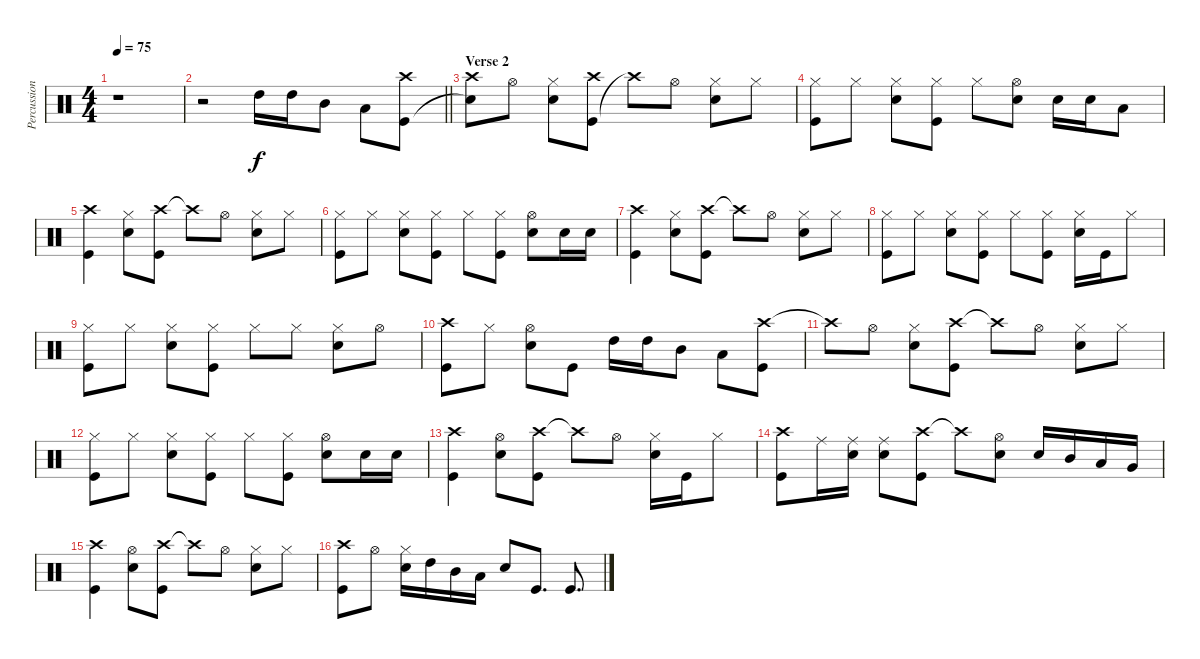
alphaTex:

\track ("Percussion 1" "Percussion") {instrument percussion}
\staff {score}
\articulation defaults
\ts (4 4)
\tempo 75
\clef neutral
\ks c
r.1{dy f} |
\barLineRight lightlight
r.2 "High Tom (hit)".16 "High Tom (hit)".16 "Mid Tom (hit)".8 "Low Tom (hit)".8 ("Kick (hit)" "Crash high (hit)").8 |
\section ("" "Verse 2")
("Snare (hit)"{t} "Crash high (hit)").8 "Hi-Hat (open)".8 ("Snare (hit) 2" "Hi-Hat (closed)").8 ("Kick (hit)" "Crash high (hit)").8 "Crash high (hit)"{t}.8 "Hi-Hat (open)".8 ("Snare (hit) 2" "Hi-Hat (closed)").8 "Hi-Hat (closed)".8 |
("Hi-Hat (closed)" "Kick (hit)").8 "Hi-Hat (closed)".8 ("Hi-Hat (closed)" "Snare (hit) 2").8 ("Kick (hit)" "Hi-Hat (closed)").8 "Hi-Hat (closed)".8 ("Hi-Hat (open)" "Snare (hit) 2").8 "Snare (hit) 2".16 "Snare (hit) 2".16 "Low Tom (hit)".8 |
("Kick (hit)" "Crash high (hit)").4 ("Hi-Hat (closed)" "Snare (hit) 2").8 ("Crash high (hit)" "Kick (hit)").8 "Crash high (hit)"{t}.8 "Hi-Hat (open)".8 ("Hi-Hat (closed)" "Snare (hit) 2").8 "Hi-Hat (closed)".8 |
("Hi-Hat (closed)" "Kick (hit)").8 "Hi-Hat (closed)".8 ("Hi-Hat (closed)" "Snare (hit) 2").8 ("Hi-Hat (closed)" "Kick (hit)").8 "Hi-Hat (closed)".8 ("Hi-Hat (closed)" "Kick (hit)").8 ("Snare (hit) 2" "Hi-Hat (open)").8 "Snare (hit) 2".16 "Snare (hit) 2".16 |
("Kick (hit)" "Crash high (hit)").4 ("Hi-Hat (closed)" "Snare (hit) 2").8 ("Crash high (hit)" "Kick (hit)").8 "Crash high (hit)"{t}.8 "Hi-Hat (open)".8 ("Hi-Hat (closed)" "Snare (hit) 2").8 "Hi-Hat (closed)".8 |
("Hi-Hat (closed)" "Kick (hit)").8 "Hi-Hat (closed)".8 ("Hi-Hat (closed)" "Snare (hit) 2").8 ("Hi-Hat (closed)" "Kick (hit)").8 "Hi-Hat (closed)".8 ("Hi-Hat (closed)" "Kick (hit)").8 ("Hi-Hat (closed)" "Snare (hit) 2").16 "Kick (hit)".16 "Hi-Hat (closed)".8 |
("Hi-Hat (closed)" "Kick (hit)").8 "Hi-Hat (closed)".8 ("Hi-Hat (closed)" "Snare (hit) 2").8 ("Hi-Hat (closed)" "Kick (hit)").8 "Hi-Hat (closed)".8 "Hi-Hat (closed)".8 ("Hi-Hat (closed)" "Snare (hit) 2").8 "Hi-Hat (open)".8 |
("Crash high (hit)" "Kick (hit)").8 "Hi-Hat (closed)".8 ("Hi-Hat (open)" "Snare (hit) 2").8 "Kick (hit)".8 "High Tom (hit)".16 "High Tom (hit)".16 "Mid Tom (hit)".8 "Low Tom (hit)".8 ("Crash high (hit)" "Kick (hit)").8 |
"Crash high (hit)"{t}.8 "Hi-Hat (open)".8 ("Hi-Hat (closed)" "Snare (hit) 2").8 ("Crash high (hit)" "Kick (hit)").8 "Crash high (hit)"{t}.8 "Hi-Hat (open)".8 ("Snare (hit) 2" "Hi-Hat (closed)").8 "Hi-Hat (closed)".8 |
("Hi-Hat (closed)" "Kick (hit)").8 "Hi-Hat (closed)".8 ("Hi-Hat (closed)" "Snare (hit) 2").8 ("Hi-Hat (closed)" "Kick (hit)").8 "Hi-Hat (closed)".8 ("Hi-Hat (closed)" "Kick (hit)").8 ("Hi-Hat (open)" "Snare (hit) 2").8 "Snare (hit) 2".16 "Snare (hit) 2".16 |
("Crash high (hit)" "Kick (hit)").4 ("Hi-Hat (open)" "Snare (hit) 2").8 ("Crash high (hit)" "Kick (hit)").8 "Crash high (hit)"{t}.8 "Hi-Hat (open)".8 ("Hi-Hat (closed)" "Snare (hit) 2").16 "Kick (hit)".16 "Hi-Hat (closed)".8 |
("Crash high (hit)" "Kick (hit)").8 "Ride (middle)".16 ("Ride (middle)" "Snare (hit) 2").16 ("Ride (middle)" "Snare (hit) 2").8 ("Crash high (hit)" "Kick (hit)").8 "Crash high (hit)"{t}.8 ("Hi-Hat (open)" "Snare (hit) 2").8 "Snare (hit) 2".16 "Mid Tom (hit)".16 "Low Tom (hit)".16 "Very Low Tom (hit)".16 |
("Crash high (hit)" "Kick (hit)").4 ("Snare (hit) 2" "Hi-Hat (open)").8 ("Crash high (hit)" "Kick (hit)").8 "Crash high (hit)"{t}.8 "Hi-Hat (open)".8 ("Snare (hit) 2" "Hi-Hat (closed)").8 "Hi-Hat (closed)".8 |
("Crash high (hit)" "Kick (hit)").8 "Hi-Hat (open)".8 ("Hi-Hat (closed)" "Snare (hit) 2").16 "High Tom (hit)".16 "Mid Tom (hit)".16 "Low Tom (hit)".16 "Snare (hit) 2".8 "Kick (hit)".8{d} "Kick (hit)".8{d}
